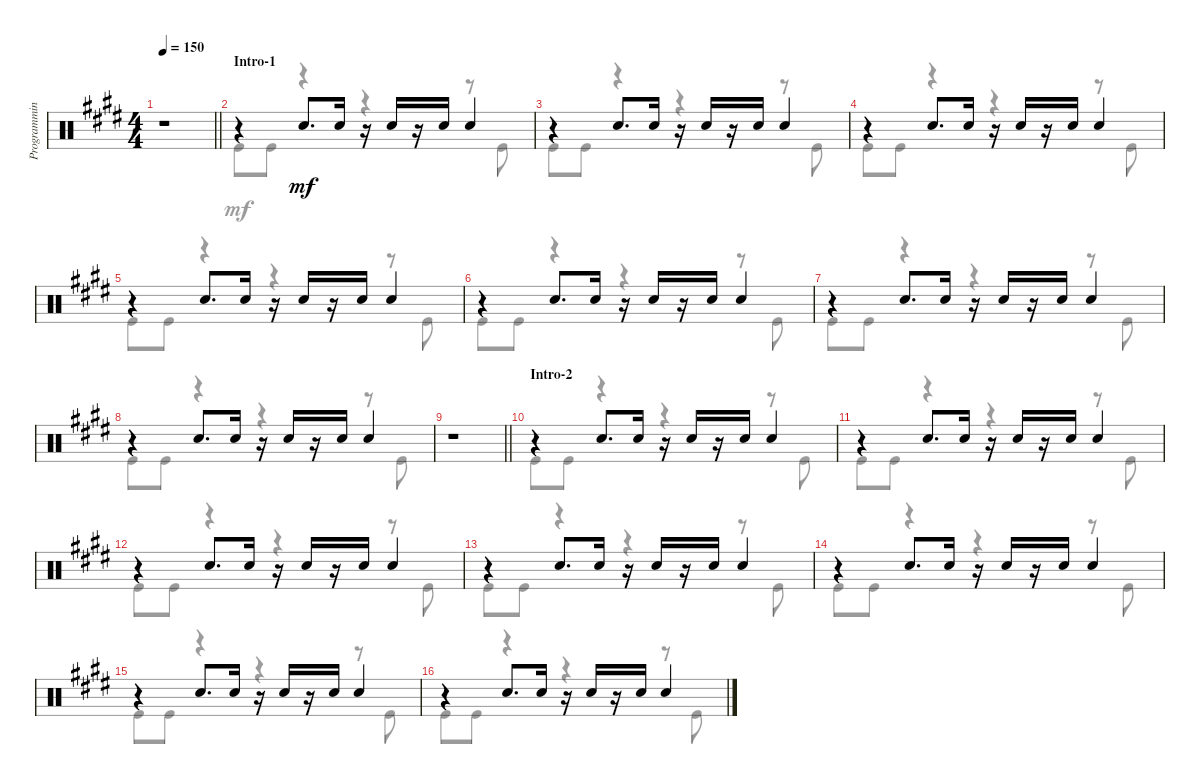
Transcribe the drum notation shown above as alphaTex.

\track ("Programming" "Programmin") {instrument percussion}
\staff {score}
\articulation defaults
\voice
\ts (4 4)
\tempo 150
\clef neutral
\barLineRight lightlight
\ks e
r.1{dy mf} |
\section ("" "Intro-1")
r.4 "Snare (hit) 2".8{d} "Snare (hit) 2".16 r.16 "Snare (hit) 2".16 r.16 "Snare (hit) 2".16 "Snare (hit) 2".4 |
r.4 "Snare (hit) 2".8{d} "Snare (hit) 2".16 r.16 "Snare (hit) 2".16 r.16 "Snare (hit) 2".16 "Snare (hit) 2".4 |
r.4 "Snare (hit) 2".8{d} "Snare (hit) 2".16 r.16 "Snare (hit) 2".16 r.16 "Snare (hit) 2".16 "Snare (hit) 2".4 |
r.4 "Snare (hit) 2".8{d} "Snare (hit) 2".16 r.16 "Snare (hit) 2".16 r.16 "Snare (hit) 2".16 "Snare (hit) 2".4 |
r.4 "Snare (hit) 2".8{d} "Snare (hit) 2".16 r.16 "Snare (hit) 2".16 r.16 "Snare (hit) 2".16 "Snare (hit) 2".4 |
r.4 "Snare (hit) 2".8{d} "Snare (hit) 2".16 r.16 "Snare (hit) 2".16 r.16 "Snare (hit) 2".16 "Snare (hit) 2".4 |
r.4 "Snare (hit) 2".8{d} "Snare (hit) 2".16 r.16 "Snare (hit) 2".16 r.16 "Snare (hit) 2".16 "Snare (hit) 2".4 |
\barLineRight lightlight
r.1 |
\section ("" "Intro-2")
r.4 "Snare (hit) 2".8{d} "Snare (hit) 2".16 r.16 "Snare (hit) 2".16 r.16 "Snare (hit) 2".16 "Snare (hit) 2".4 |
r.4 "Snare (hit) 2".8{d} "Snare (hit) 2".16 r.16 "Snare (hit) 2".16 r.16 "Snare (hit) 2".16 "Snare (hit) 2".4 |
r.4 "Snare (hit) 2".8{d} "Snare (hit) 2".16 r.16 "Snare (hit) 2".16 r.16 "Snare (hit) 2".16 "Snare (hit) 2".4 |
r.4 "Snare (hit) 2".8{d} "Snare (hit) 2".16 r.16 "Snare (hit) 2".16 r.16 "Snare (hit) 2".16 "Snare (hit) 2".4 |
r.4 "Snare (hit) 2".8{d} "Snare (hit) 2".16 r.16 "Snare (hit) 2".16 r.16 "Snare (hit) 2".16 "Snare (hit) 2".4 |
r.4 "Snare (hit) 2".8{d} "Snare (hit) 2".16 r.16 "Snare (hit) 2".16 r.16 "Snare (hit) 2".16 "Snare (hit) 2".4 |
r.4 "Snare (hit) 2".8{d} "Snare (hit) 2".16 r.16 "Snare (hit) 2".16 r.16 "Snare (hit) 2".16 "Snare (hit) 2".4
\voice
\clef neutral
\ottava regular
\simile none
\barLineRight lightlight
\ks e
|
"Kick (hit)".8 "Kick (hit)".8 r.4 r.4 r.8 "Kick (hit)".8 |
"Kick (hit)".8 "Kick (hit)".8 r.4 r.4 r.8 "Kick (hit)".8 |
"Kick (hit)".8 "Kick (hit)".8 r.4 r.4 r.8 "Kick (hit)".8 |
"Kick (hit)".8 "Kick (hit)".8 r.4 r.4 r.8 "Kick (hit)".8 |
"Kick (hit)".8 "Kick (hit)".8 r.4 r.4 r.8 "Kick (hit)".8 |
"Kick (hit)".8 "Kick (hit)".8 r.4 r.4 r.8 "Kick (hit)".8 |
"Kick (hit)".8 "Kick (hit)".8 r.4 r.4 r.8 "Kick (hit)".8 |
\barLineRight lightlight
|
"Kick (hit)".8 "Kick (hit)".8 r.4 r.4 r.8 "Kick (hit)".8 |
"Kick (hit)".8 "Kick (hit)".8 r.4 r.4 r.8 "Kick (hit)".8 |
"Kick (hit)".8 "Kick (hit)".8 r.4 r.4 r.8 "Kick (hit)".8 |
"Kick (hit)".8 "Kick (hit)".8 r.4 r.4 r.8 "Kick (hit)".8 |
"Kick (hit)".8 "Kick (hit)".8 r.4 r.4 r.8 "Kick (hit)".8 |
"Kick (hit)".8 "Kick (hit)".8 r.4 r.4 r.8 "Kick (hit)".8 |
"Kick (hit)".8 "Kick (hit)".8 r.4 r.4 r.8 "Kick (hit)".8
